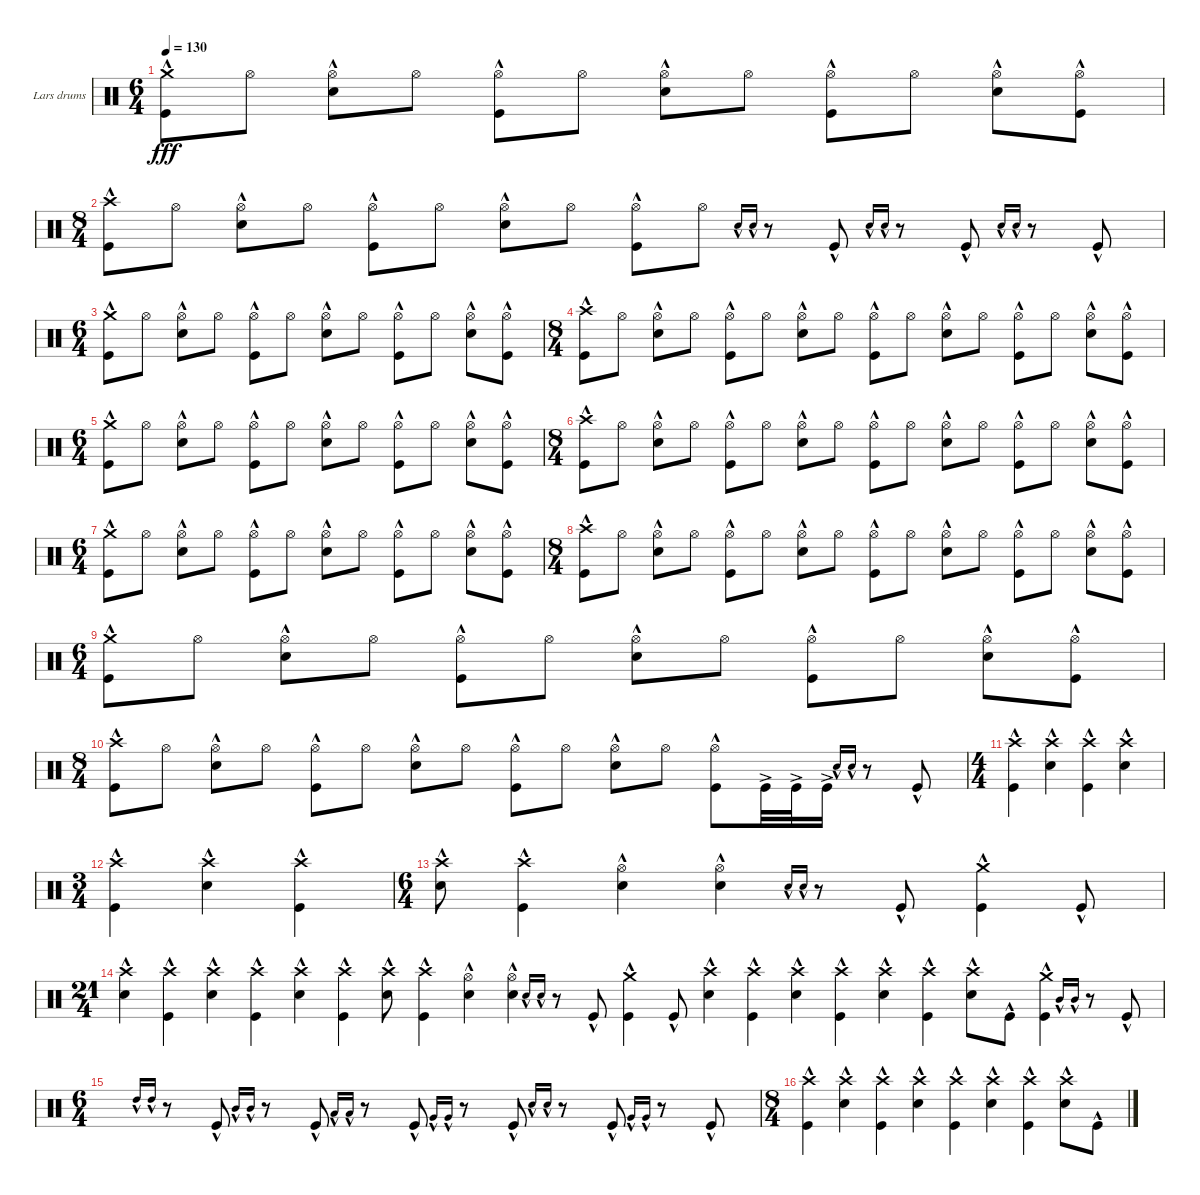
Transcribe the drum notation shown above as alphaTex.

\defaultSystemsLayout 4
\bracketExtendMode groupsimilarinstruments
\firstSystemTrackNameOrientation horizontal
\otherSystemsTrackNameOrientation horizontal
\track ("Lars drums" "Lars drums") {instrument percussion}
\staff {score}
\articulation defaults
\ts (6 4)
\tempo 130
\clef neutral
\ks c
("Crash medium (hit)"{hac} "Kick (hit)"{hac}).8{dy fff} "Hi-Hat (open)".8 ("Hi-Hat (open)" "Snare (hit) 2"{hac}).8 "Hi-Hat (open)".8 ("Hi-Hat (open)" "Kick (hit)"{hac}).8 "Hi-Hat (open)".8 ("Hi-Hat (open)" "Snare (hit) 2"{hac}).8 "Hi-Hat (open)".8 ("Hi-Hat (open)" "Kick (hit)"{hac}).8 "Hi-Hat (open)".8 ("Hi-Hat (open)" "Snare (hit) 2"{hac}).8 ("Hi-Hat (open)" "Kick (hit)"{hac}).8 |
\ts (8 4)
("Crash high (hit)"{hac} "Kick (hit)"{hac}).8 "Hi-Hat (open)".8 ("Hi-Hat (open)" "Snare (hit) 2"{hac}).8 "Hi-Hat (open)".8 ("Hi-Hat (open)" "Kick (hit)"{hac}).8 "Hi-Hat (open)".8 ("Hi-Hat (open)" "Snare (hit) 2"{hac}).8 "Hi-Hat (open)".8 ("Hi-Hat (open)" "Kick (hit)"{hac}).8 "Hi-Hat (open)".8 "Snare (hit) 2"{hac}.16{gr onbeat} "Snare (hit) 2"{hac}.16{gr onbeat} r.8 "Kick (hit)"{hac}.8 "Snare (hit) 2"{hac}.16{gr onbeat} "Snare (hit) 2"{hac}.16{gr onbeat} r.8 "Kick (hit)"{hac}.8 "Snare (hit) 2"{hac}.16{gr onbeat} "Snare (hit) 2"{hac}.16{gr onbeat} r.8 "Kick (hit)"{hac}.8 |
\ts (6 4)
("Crash medium (hit)"{hac} "Kick (hit)"{hac}).8 "Hi-Hat (open)".8 ("Hi-Hat (open)" "Snare (hit) 2"{hac}).8 "Hi-Hat (open)".8 ("Hi-Hat (open)" "Kick (hit)"{hac}).8 "Hi-Hat (open)".8 ("Hi-Hat (open)" "Snare (hit) 2"{hac}).8 "Hi-Hat (open)".8 ("Hi-Hat (open)" "Kick (hit)"{hac}).8 "Hi-Hat (open)".8 ("Hi-Hat (open)" "Snare (hit) 2"{hac}).8 ("Hi-Hat (open)" "Kick (hit)"{hac}).8 |
\ts (8 4)
("Crash high (hit)"{hac} "Kick (hit)"{hac}).8 "Hi-Hat (open)".8 ("Hi-Hat (open)" "Snare (hit) 2"{hac}).8 "Hi-Hat (open)".8 ("Hi-Hat (open)" "Kick (hit)"{hac}).8 "Hi-Hat (open)".8 ("Hi-Hat (open)" "Snare (hit) 2"{hac}).8 "Hi-Hat (open)".8 ("Hi-Hat (open)" "Kick (hit)"{hac}).8 "Hi-Hat (open)".8 ("Hi-Hat (open)" "Snare (hit) 2"{hac}).8 "Hi-Hat (open)".8 ("Hi-Hat (open)" "Kick (hit)"{hac}).8 "Hi-Hat (open)".8 ("Hi-Hat (open)" "Snare (hit) 2"{hac}).8 ("Hi-Hat (open)" "Kick (hit)"{hac}).8 |
\ts (6 4)
("Crash medium (hit)"{hac} "Kick (hit)"{hac}).8 "Hi-Hat (open)".8 ("Hi-Hat (open)" "Snare (hit) 2"{hac}).8 "Hi-Hat (open)".8 ("Hi-Hat (open)" "Kick (hit)"{hac}).8 "Hi-Hat (open)".8 ("Hi-Hat (open)" "Snare (hit) 2"{hac}).8 "Hi-Hat (open)".8 ("Hi-Hat (open)" "Kick (hit)"{hac}).8 "Hi-Hat (open)".8 ("Hi-Hat (open)" "Snare (hit) 2"{hac}).8 ("Hi-Hat (open)" "Kick (hit)"{hac}).8 |
\ts (8 4)
("Crash high (hit)"{hac} "Kick (hit)"{hac}).8 "Hi-Hat (open)".8 ("Hi-Hat (open)" "Snare (hit) 2"{hac}).8 "Hi-Hat (open)".8 ("Hi-Hat (open)" "Kick (hit)"{hac}).8 "Hi-Hat (open)".8 ("Hi-Hat (open)" "Snare (hit) 2"{hac}).8 "Hi-Hat (open)".8 ("Hi-Hat (open)" "Kick (hit)"{hac}).8 "Hi-Hat (open)".8 ("Hi-Hat (open)" "Snare (hit) 2"{hac}).8 "Hi-Hat (open)".8 ("Hi-Hat (open)" "Kick (hit)"{hac}).8 "Hi-Hat (open)".8 ("Hi-Hat (open)" "Snare (hit) 2"{hac}).8 ("Hi-Hat (open)" "Kick (hit)"{hac}).8 |
\ts (6 4)
("Crash medium (hit)"{hac} "Kick (hit)"{hac}).8 "Hi-Hat (open)".8 ("Hi-Hat (open)" "Snare (hit) 2"{hac}).8 "Hi-Hat (open)".8 ("Hi-Hat (open)" "Kick (hit)"{hac}).8 "Hi-Hat (open)".8 ("Hi-Hat (open)" "Snare (hit) 2"{hac}).8 "Hi-Hat (open)".8 ("Hi-Hat (open)" "Kick (hit)"{hac}).8 "Hi-Hat (open)".8 ("Hi-Hat (open)" "Snare (hit) 2"{hac}).8 ("Hi-Hat (open)" "Kick (hit)"{hac}).8 |
\ts (8 4)
("Crash high (hit)"{hac} "Kick (hit)"{hac}).8 "Hi-Hat (open)".8 ("Hi-Hat (open)" "Snare (hit) 2"{hac}).8 "Hi-Hat (open)".8 ("Hi-Hat (open)" "Kick (hit)"{hac}).8 "Hi-Hat (open)".8 ("Hi-Hat (open)" "Snare (hit) 2"{hac}).8 "Hi-Hat (open)".8 ("Hi-Hat (open)" "Kick (hit)"{hac}).8 "Hi-Hat (open)".8 ("Hi-Hat (open)" "Snare (hit) 2"{hac}).8 "Hi-Hat (open)".8 ("Hi-Hat (open)" "Kick (hit)"{hac}).8 "Hi-Hat (open)".8 ("Hi-Hat (open)" "Snare (hit) 2"{hac}).8 ("Hi-Hat (open)" "Kick (hit)"{hac}).8 |
\ts (6 4)
("Crash medium (hit)"{hac} "Kick (hit)"{hac}).8 "Hi-Hat (open)".8 ("Hi-Hat (open)" "Snare (hit) 2"{hac}).8 "Hi-Hat (open)".8 ("Hi-Hat (open)" "Kick (hit)"{hac}).8 "Hi-Hat (open)".8 ("Hi-Hat (open)" "Snare (hit) 2"{hac}).8 "Hi-Hat (open)".8 ("Hi-Hat (open)" "Kick (hit)"{hac}).8 "Hi-Hat (open)".8 ("Hi-Hat (open)" "Snare (hit) 2"{hac}).8 ("Hi-Hat (open)" "Kick (hit)"{hac}).8 |
\ts (8 4)
("Crash high (hit)"{hac} "Kick (hit)"{hac}).8 "Hi-Hat (open)".8 ("Hi-Hat (open)" "Snare (hit) 2"{hac}).8 "Hi-Hat (open)".8 ("Hi-Hat (open)" "Kick (hit)"{hac}).8 "Hi-Hat (open)".8 ("Hi-Hat (open)" "Snare (hit) 2"{hac}).8 "Hi-Hat (open)".8 ("Hi-Hat (open)" "Kick (hit)"{hac}).8 "Hi-Hat (open)".8 ("Hi-Hat (open)" "Snare (hit) 2"{hac}).8 "Hi-Hat (open)".8 ("Hi-Hat (open)" "Kick (hit)"{hac}).8 "Kick (hit)"{ac}.32 "Kick (hit)"{ac}.32 "Kick (hit)"{ac}.16 "Snare (hit) 2"{hac}.16{gr onbeat} "Snare (hit) 2"{hac}.16{gr onbeat} r.8 "Kick (hit)"{hac}.8 |
\ts (4 4)
("Crash high (hit)"{hac} "Kick (hit)"{hac}).4 ("Crash high (hit)"{hac} "Snare (hit) 2"{hac}).4 ("Crash high (hit)"{hac} "Kick (hit)"{hac}).4 ("Crash high (hit)"{hac} "Snare (hit) 2"{hac}).4 |
\ts (3 4)
("Crash high (hit)"{hac} "Kick (hit)"{hac}).4 ("Crash high (hit)"{hac} "Snare (hit) 2"{hac}).4 ("Crash high (hit)"{hac} "Kick (hit)"{hac}).4 |
\ts (6 4)
("Crash high (hit)"{hac} "Snare (hit) 2"{hac}).8 ("Crash high (hit)"{hac} "Kick (hit)"{hac}).4 ("Hi-Hat (open)"{hac} "Snare (hit) 2"{hac}).4 ("Hi-Hat (open)"{hac} "Snare (hit) 2"{hac}).4 "Snare (hit) 2"{hac}.16{gr onbeat} "Snare (hit) 2"{hac}.16{gr onbeat} r.8 "Kick (hit)"{hac}.8 ("Crash medium (hit)"{hac} "Kick (hit)"{hac}).4 "Kick (hit)"{hac}.8 |
\ts (21 4)
("Crash high (hit)"{hac} "Snare (hit) 2"{hac}).4 ("Crash high (hit)"{hac} "Kick (hit)"{hac}).4 ("Crash high (hit)"{hac} "Snare (hit) 2"{hac}).4 ("Crash high (hit)"{hac} "Kick (hit)"{hac}).4 ("Crash high (hit)"{hac} "Snare (hit) 2"{hac}).4 ("Crash high (hit)"{hac} "Kick (hit)"{hac}).4 ("Crash high (hit)"{hac} "Snare (hit) 2"{hac}).8 ("Crash high (hit)"{hac} "Kick (hit)"{hac}).4 ("Hi-Hat (open)"{hac} "Snare (hit) 2"{hac}).4 ("Hi-Hat (open)"{hac} "Snare (hit) 2"{hac}).4 "Snare (hit) 2"{hac}.16{gr onbeat} "Snare (hit) 2"{hac}.16{gr onbeat} r.8 "Kick (hit)"{hac}.8 ("Crash medium (hit)"{hac} "Kick (hit)"{hac}).4 "Kick (hit)"{hac}.8 ("Crash high (hit)"{hac} "Snare (hit) 2"{hac}).4 ("Crash high (hit)"{hac} "Kick (hit)"{hac}).4 ("Crash high (hit)"{hac} "Snare (hit) 2"{hac}).4 ("Crash high (hit)"{hac} "Kick (hit)"{hac}).4 ("Crash high (hit)"{hac} "Snare (hit) 2"{hac}).4 ("Crash high (hit)"{hac} "Kick (hit)"{hac}).4 ("Crash high (hit)"{hac} "Snare (hit) 2"{hac}).8 "Kick (hit)"{hac}.8 ("Crash medium (hit)"{hac} "Kick (hit)"{hac}).4 "Mid Tom (hit)"{hac}.16{gr onbeat} "Mid Tom (hit)"{hac}.16{gr onbeat} r.8 "Kick (hit)"{hac}.8 |
\ts (6 4)
"High Tom (hit)"{hac}.16{gr onbeat} "High Tom (hit)"{hac}.16{gr onbeat} r.8 "Kick (hit)"{hac}.8 "Mid Tom (hit)"{hac}.16{gr onbeat} "Mid Tom (hit)"{hac}.16{gr onbeat} r.8 "Kick (hit)"{hac}.8 "Low Tom (hit)"{hac}.16{gr onbeat} "Low Tom (hit)"{hac}.16{gr onbeat} r.8 "Kick (hit)"{hac}.8 "Very Low Tom (hit)"{hac}.16{gr onbeat} "Very Low Tom (hit)"{hac}.16{gr onbeat} r.8 "Kick (hit)"{hac}.8 "Snare (hit) 2"{hac}.16{gr onbeat} "Snare (hit) 2"{hac}.16{gr onbeat} r.8 "Kick (hit)"{hac}.8 "Very Low Tom (hit)"{hac}.16{gr onbeat} "Very Low Tom (hit)"{hac}.16{gr onbeat} r.8 "Kick (hit)"{hac}.8 |
\ts (8 4)
("Crash high (hit)"{hac} "Kick (hit)"{hac}).4 ("Crash high (hit)"{hac} "Snare (hit) 2"{hac}).4 ("Crash high (hit)"{hac} "Kick (hit)"{hac}).4 ("Crash high (hit)"{hac} "Snare (hit) 2"{hac}).4 ("Crash high (hit)"{hac} "Kick (hit)"{hac}).4 ("Crash high (hit)"{hac} "Snare (hit) 2"{hac}).4 ("Crash high (hit)"{hac} "Kick (hit)"{hac}).4 ("Crash high (hit)"{hac} "Snare (hit) 2"{hac}).8 "Kick (hit)"{hac}.8
